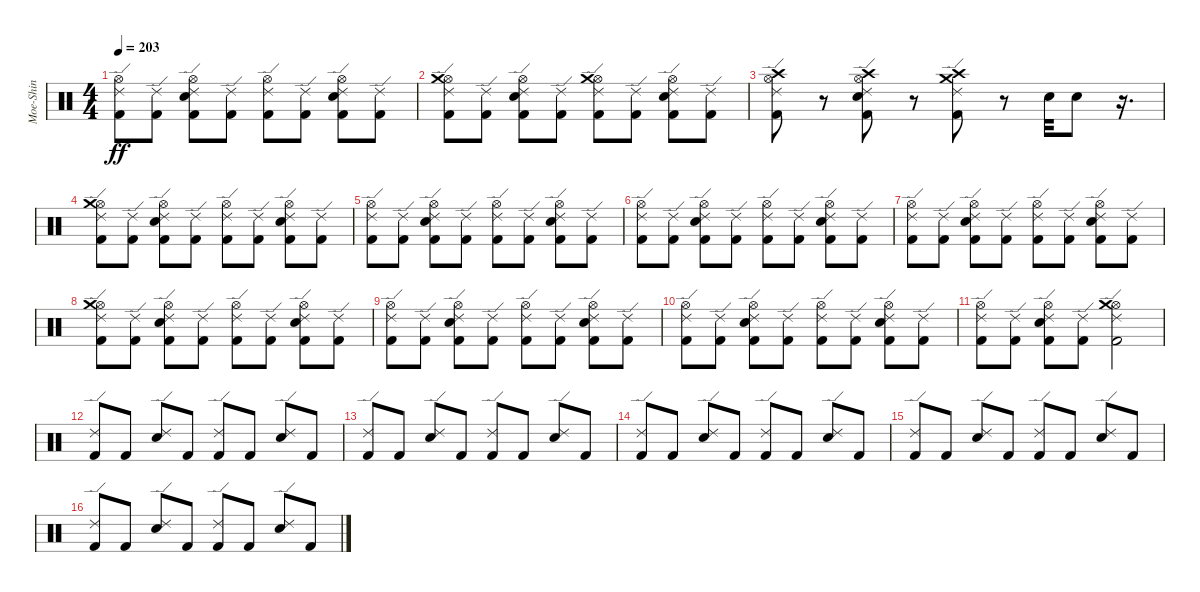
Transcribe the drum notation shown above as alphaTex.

\track ("Moe-Shin" "Moe-Shin") {instrument percussion}
\staff {score}
\articulation defaults
\ts (4 4)
\tempo 203
\clef neutral
\ks c
("Hi-Hat (open)" "Kick (hit) 2" "Ride (edge) 2").8{dy ff} ("Kick (hit) 2" "Ride (edge) 2").8 ("Snare (hit) 2" "Kick (hit) 2" "Ride (edge) 2" "Hi-Hat (open)").8 ("Ride (edge) 2" "Kick (hit) 2").8 ("Ride (edge) 2" "Hi-Hat (open)" "Kick (hit) 2").8 ("Ride (edge) 2" "Kick (hit) 2").8 ("Kick (hit) 2" "Hi-Hat (open)" "Ride (edge) 2" "Snare (hit) 2").8 ("Kick (hit) 2" "Ride (edge) 2").8 |
("Kick (hit) 2" "Hi-Hat (open)" "Ride (edge) 2" "Crash medium (hit)").8 ("Kick (hit) 2" "Ride (edge) 2").8 ("Hi-Hat (open)" "Snare (hit) 2" "Kick (hit) 2" "Ride (edge) 2").8 ("Kick (hit) 2" "Ride (edge) 2").8 ("Hi-Hat (open)" "Kick (hit) 2" "Ride (edge) 2" "Crash medium (hit)").8 ("Ride (edge) 2" "Kick (hit) 2").8 ("Hi-Hat (open)" "Kick (hit) 2" "Ride (edge) 2" "Snare (hit) 2").8 ("Kick (hit) 2" "Ride (edge) 2").8 |
("Crash high (hit)" "Kick (hit) 2" "Hi-Hat (open)" "Ride (edge) 2").8 r.8 ("Hi-Hat (open)" "Crash high (hit)" "Snare (hit) 2" "Ride (edge) 2" "Kick (hit) 2").8 r.8 ("Ride (edge) 2" "Kick (hit) 2" "Crash high (hit)" "Crash medium (hit)").8 r.8 "Snare (hit) 2".32 "Snare (hit) 2".8 r.16{d} |
("Hi-Hat (open)" "Ride (edge) 2" "Crash medium (hit)" "Kick (hit) 2").8 ("Kick (hit) 2" "Ride (edge) 2").8 ("Kick (hit) 2" "Hi-Hat (open)" "Snare (hit) 2" "Ride (edge) 2").8 ("Kick (hit) 2" "Ride (edge) 2").8 ("Kick (hit) 2" "Hi-Hat (open)" "Ride (edge) 2").8 ("Ride (edge) 2" "Kick (hit) 2").8 ("Hi-Hat (open)" "Snare (hit) 2" "Ride (edge) 2" "Kick (hit) 2").8 ("Kick (hit) 2" "Ride (edge) 2").8 |
("Hi-Hat (open)" "Kick (hit) 2" "Ride (edge) 2").8 ("Kick (hit) 2" "Ride (edge) 2").8 ("Snare (hit) 2" "Hi-Hat (open)" "Ride (edge) 2" "Kick (hit) 2").8 ("Ride (edge) 2" "Kick (hit) 2").8 ("Hi-Hat (open)" "Kick (hit) 2" "Ride (edge) 2").8 ("Kick (hit) 2" "Ride (edge) 2").8 ("Kick (hit) 2" "Snare (hit) 2" "Hi-Hat (open)" "Ride (edge) 2").8 ("Ride (edge) 2" "Kick (hit) 2").8 |
("Hi-Hat (open)" "Ride (edge) 2" "Kick (hit) 2").8 ("Ride (edge) 2" "Kick (hit) 2").8 ("Hi-Hat (open)" "Ride (edge) 2" "Kick (hit) 2" "Snare (hit) 2").8 ("Kick (hit) 2" "Ride (edge) 2").8 ("Ride (edge) 2" "Kick (hit) 2" "Hi-Hat (open)").8 ("Kick (hit) 2" "Ride (edge) 2").8 ("Hi-Hat (open)" "Snare (hit) 2" "Ride (edge) 2" "Kick (hit) 2").8 ("Ride (edge) 2" "Kick (hit) 2").8 |
("Ride (edge) 2" "Kick (hit) 2" "Hi-Hat (open)").8 ("Ride (edge) 2" "Kick (hit) 2").8 ("Ride (edge) 2" "Hi-Hat (open)" "Snare (hit) 2" "Kick (hit) 2").8 ("Kick (hit) 2" "Ride (edge) 2").8 ("Ride (edge) 2" "Kick (hit) 2" "Hi-Hat (open)").8 ("Kick (hit) 2" "Ride (edge) 2").8 ("Hi-Hat (open)" "Kick (hit) 2" "Snare (hit) 2" "Ride (edge) 2").8 ("Ride (edge) 2" "Kick (hit) 2").8 |
("Kick (hit) 2" "Ride (edge) 2" "Hi-Hat (open)" "Crash medium (hit)").8 ("Kick (hit) 2" "Ride (edge) 2").8 ("Snare (hit) 2" "Kick (hit) 2" "Ride (edge) 2" "Hi-Hat (open)").8 ("Ride (edge) 2" "Kick (hit) 2").8 ("Hi-Hat (open)" "Ride (edge) 2" "Kick (hit) 2").8 ("Ride (edge) 2" "Kick (hit) 2").8 ("Snare (hit) 2" "Hi-Hat (open)" "Ride (edge) 2" "Kick (hit) 2").8 ("Ride (edge) 2" "Kick (hit) 2").8 |
("Hi-Hat (open)" "Kick (hit) 2" "Ride (edge) 2").8 ("Ride (edge) 2" "Kick (hit) 2").8 ("Hi-Hat (open)" "Ride (edge) 2" "Kick (hit) 2" "Snare (hit) 2").8 ("Kick (hit) 2" "Ride (edge) 2").8 ("Hi-Hat (open)" "Ride (edge) 2" "Kick (hit) 2").8 ("Kick (hit) 2" "Ride (edge) 2").8 ("Kick (hit) 2" "Hi-Hat (open)" "Snare (hit) 2" "Ride (edge) 2").8 ("Kick (hit) 2" "Ride (edge) 2").8 |
("Hi-Hat (open)" "Ride (edge) 2" "Kick (hit) 2").8 ("Ride (edge) 2" "Kick (hit) 2").8 ("Kick (hit) 2" "Snare (hit) 2" "Ride (edge) 2" "Hi-Hat (open)").8 ("Kick (hit) 2" "Ride (edge) 2").8 ("Hi-Hat (open)" "Ride (edge) 2" "Kick (hit) 2").8 ("Kick (hit) 2" "Ride (edge) 2").8 ("Snare (hit) 2" "Ride (edge) 2" "Kick (hit) 2" "Hi-Hat (open)").8 ("Kick (hit) 2" "Ride (edge) 2").8 |
("Hi-Hat (open)" "Ride (edge) 2" "Kick (hit) 2").8 ("Ride (edge) 2" "Kick (hit) 2").8 ("Ride (edge) 2" "Kick (hit) 2" "Hi-Hat (open)" "Snare (hit) 2").8 ("Ride (edge) 2" "Kick (hit) 2").8 ("Kick (hit) 2" "Hi-Hat (open)" "Ride (edge) 2" "Crash medium (hit)").2 |
("Kick (hit) 2" "Ride (edge) 2").8 "Kick (hit) 2".8 ("Snare (hit) 2" "Ride (edge) 2").8 "Kick (hit) 2".8 ("Kick (hit) 2" "Ride (edge) 2").8 "Kick (hit) 2".8 ("Snare (hit) 2" "Ride (edge) 2").8 "Kick (hit) 2".8 |
("Kick (hit) 2" "Ride (edge) 2").8 "Kick (hit) 2".8 ("Ride (edge) 2" "Snare (hit) 2").8 "Kick (hit) 2".8 ("Ride (edge) 2" "Kick (hit) 2").8 "Kick (hit) 2".8 ("Ride (edge) 2" "Snare (hit) 2").8 "Kick (hit) 2".8 |
("Ride (edge) 2" "Kick (hit) 2").8 "Kick (hit) 2".8 ("Ride (edge) 2" "Snare (hit) 2").8 "Kick (hit) 2".8 ("Kick (hit) 2" "Ride (edge) 2").8 "Kick (hit) 2".8 ("Ride (edge) 2" "Snare (hit) 2").8 "Kick (hit) 2".8 |
("Kick (hit) 2" "Ride (edge) 2").8 "Kick (hit) 2".8 ("Snare (hit) 2" "Ride (edge) 2").8 "Kick (hit) 2".8 ("Kick (hit) 2" "Ride (edge) 2").8 "Kick (hit) 2".8 ("Ride (edge) 2" "Snare (hit) 2").8 "Kick (hit) 2".8 |
("Ride (edge) 2" "Kick (hit) 2").8 "Kick (hit) 2".8 ("Ride (edge) 2" "Snare (hit) 2").8 "Kick (hit) 2".8 ("Ride (edge) 2" "Kick (hit) 2").8 "Kick (hit) 2".8 ("Ride (edge) 2" "Snare (hit) 2").8 "Kick (hit) 2".8
